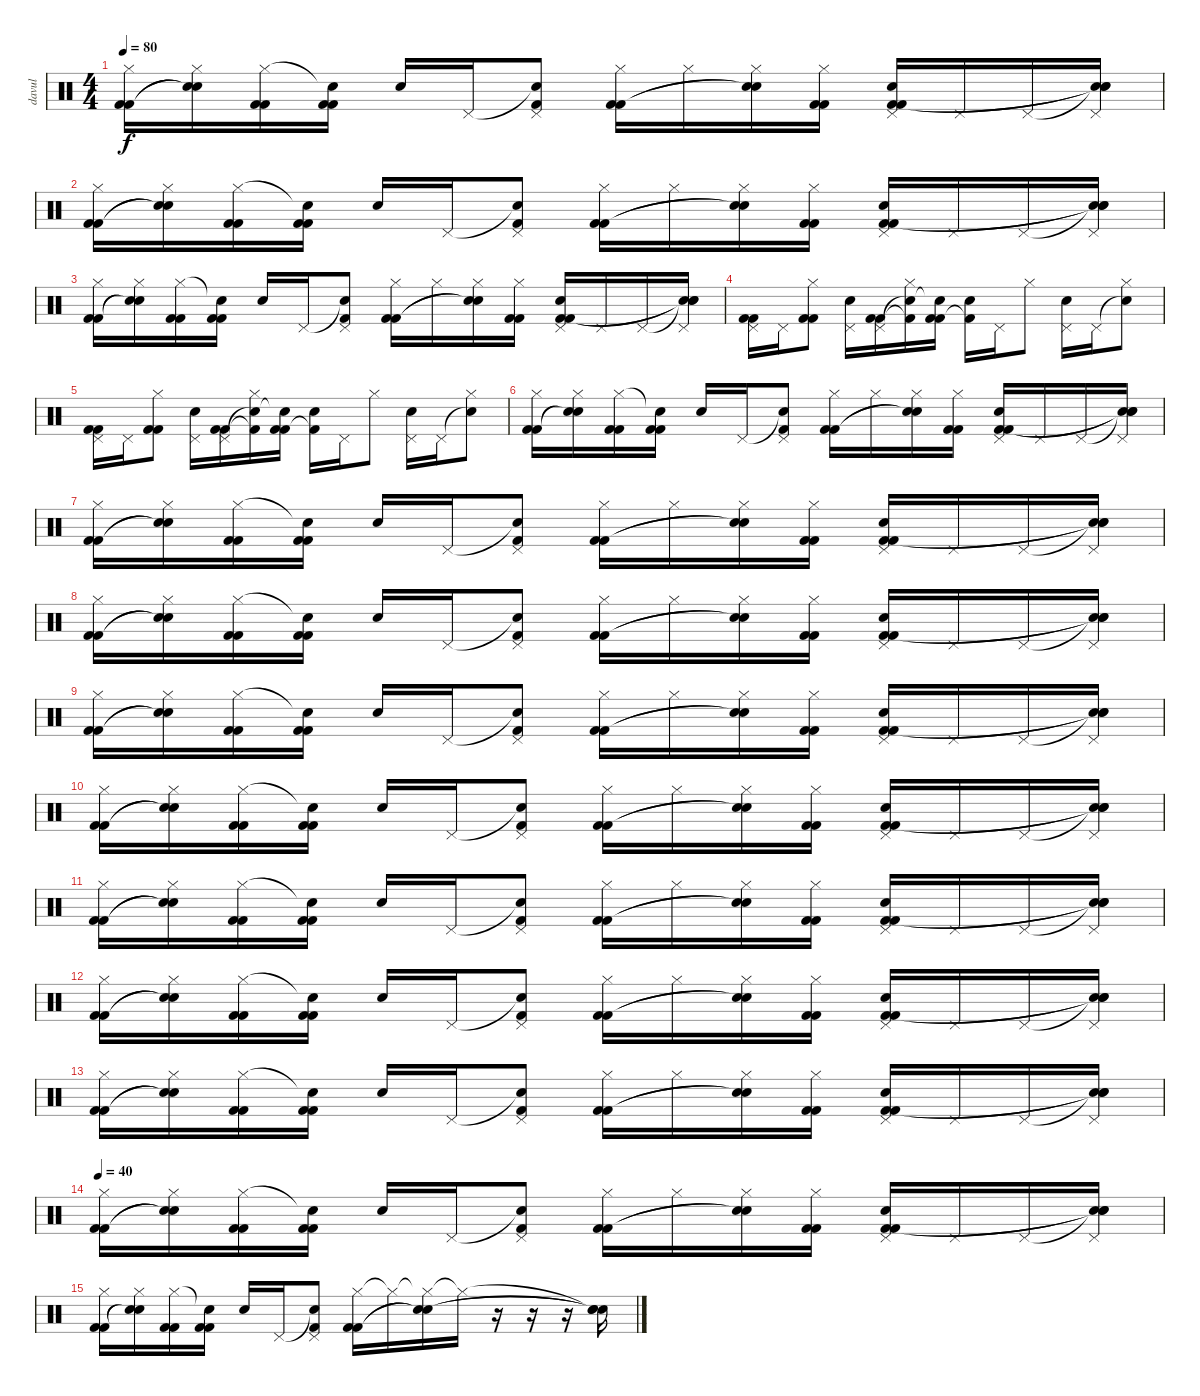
\track ("davul" "davul") {instrument percussion}
\staff {score}
\articulation defaults
\ts (4 4)
\tempo 80
\clef neutral
\ks c
("Hi-Hat (closed)" "Kick (hit) 2" "Kick (hit) 2").16{dy f} ("Hi-Hat (closed)" "Snare (hit)"{t} "Snare (hit)"{t}).16 ("Hi-Hat (closed)" "Kick (hit) 2" "Kick (hit) 2").16 ("Snare (hit)"{t} "Kick (hit) 2" "Kick (hit) 2").16 "Electric Snare (hit)".16 "Pedal Hi-Hat (hit)".16 ("Snare (hit)"{t} "Pedal Hi-Hat (hit)" "Kick (hit) 2").8 ("Hi-Hat (closed)" "Kick (hit) 2" "Kick (hit) 2").16 "Hi-Hat (closed)".16 ("Hi-Hat (closed)" "Snare (hit)"{t} "Snare (hit)"{t}).16 ("Hi-Hat (closed)" "Kick (hit) 2" "Kick (hit) 2").16 ("Electric Snare (hit)" "Pedal Hi-Hat (hit)" "Kick (hit) 2" "Kick (hit) 2").16 "Pedal Hi-Hat (hit)".16 "Pedal Hi-Hat (hit)".16 ("Snare (hit)"{t} "Pedal Hi-Hat (hit)" "Snare (hit)"{t} "Snare (hit)"{t}).16 |
("Hi-Hat (closed)" "Kick (hit) 2" "Kick (hit) 2").16 ("Hi-Hat (closed)" "Snare (hit)"{t} "Snare (hit)"{t}).16 ("Hi-Hat (closed)" "Kick (hit) 2" "Kick (hit) 2").16 ("Snare (hit)"{t} "Kick (hit) 2" "Kick (hit) 2").16 "Electric Snare (hit)".16 "Pedal Hi-Hat (hit)".16 ("Snare (hit)"{t} "Pedal Hi-Hat (hit)" "Kick (hit) 2").8 ("Hi-Hat (closed)" "Kick (hit) 2" "Kick (hit) 2").16 "Hi-Hat (closed)".16 ("Hi-Hat (closed)" "Snare (hit)"{t} "Snare (hit)"{t}).16 ("Hi-Hat (closed)" "Kick (hit) 2" "Kick (hit) 2").16 ("Electric Snare (hit)" "Pedal Hi-Hat (hit)" "Kick (hit) 2" "Kick (hit) 2").16 "Pedal Hi-Hat (hit)".16 "Pedal Hi-Hat (hit)".16 ("Snare (hit)"{t} "Pedal Hi-Hat (hit)" "Snare (hit)"{t} "Snare (hit)"{t}).16 |
("Hi-Hat (closed)" "Kick (hit) 2" "Kick (hit) 2").16 ("Hi-Hat (closed)" "Snare (hit)"{t} "Snare (hit)"{t}).16 ("Hi-Hat (closed)" "Kick (hit) 2" "Kick (hit) 2").16 ("Snare (hit)"{t} "Kick (hit) 2" "Kick (hit) 2").16 "Electric Snare (hit)".16 "Pedal Hi-Hat (hit)".16 ("Snare (hit)"{t} "Pedal Hi-Hat (hit)" "Kick (hit) 2").8 ("Hi-Hat (closed)" "Kick (hit) 2" "Kick (hit) 2").16 "Hi-Hat (closed)".16 ("Hi-Hat (closed)" "Snare (hit)"{t} "Snare (hit)"{t}).16 ("Hi-Hat (closed)" "Kick (hit) 2" "Kick (hit) 2").16 ("Electric Snare (hit)" "Pedal Hi-Hat (hit)" "Kick (hit) 2" "Kick (hit) 2").16 "Pedal Hi-Hat (hit)".16 "Pedal Hi-Hat (hit)".16 ("Snare (hit)"{t} "Pedal Hi-Hat (hit)" "Snare (hit)"{t} "Snare (hit)"{t}).16 |
("Pedal Hi-Hat (hit)" "Kick (hit) 2" "Kick (hit) 2").16 "Pedal Hi-Hat (hit)".16 ("Hi-Hat (closed)" "Kick (hit) 2" "Kick (hit) 2").8 ("Electric Snare (hit)" "Pedal Hi-Hat (hit)").16 ("Pedal Hi-Hat (hit)" "Kick (hit) 2" "Kick (hit) 2").16 ("Snare (hit)"{t} "Hi-Hat (closed)" "Kick (hit) 2"{t}).16 ("Snare (hit)"{t} "Kick (hit) 2" "Kick (hit) 2").16 ("Snare (hit)" "Kick (hit) 2"{t}).16 "Pedal Hi-Hat (hit)".16 "Hi-Hat (closed)".8 ("Electric Snare (hit)" "Pedal Hi-Hat (hit)").16 "Pedal Hi-Hat (hit)".16 ("Snare (hit)"{t} "Hi-Hat (closed)").8 |
("Pedal Hi-Hat (hit)" "Kick (hit) 2" "Kick (hit) 2").16 "Pedal Hi-Hat (hit)".16 ("Hi-Hat (closed)" "Kick (hit) 2" "Kick (hit) 2").8 ("Electric Snare (hit)" "Pedal Hi-Hat (hit)").16 ("Pedal Hi-Hat (hit)" "Kick (hit) 2" "Kick (hit) 2").16 ("Snare (hit)"{t} "Hi-Hat (closed)" "Kick (hit) 2"{t}).16 ("Snare (hit)"{t} "Kick (hit) 2" "Kick (hit) 2").16 ("Snare (hit)" "Kick (hit) 2"{t}).16 "Pedal Hi-Hat (hit)".16 "Hi-Hat (closed)".8 ("Electric Snare (hit)" "Pedal Hi-Hat (hit)").16 "Pedal Hi-Hat (hit)".16 ("Snare (hit)"{t} "Hi-Hat (closed)").8 |
("Hi-Hat (closed)" "Kick (hit) 2" "Kick (hit) 2").16 ("Hi-Hat (closed)" "Snare (hit)"{t} "Snare (hit)"{t}).16 ("Hi-Hat (closed)" "Kick (hit) 2" "Kick (hit) 2").16 ("Snare (hit)"{t} "Kick (hit) 2" "Kick (hit) 2").16 "Electric Snare (hit)".16 "Pedal Hi-Hat (hit)".16 ("Snare (hit)"{t} "Pedal Hi-Hat (hit)" "Kick (hit) 2").8 ("Hi-Hat (closed)" "Kick (hit) 2" "Kick (hit) 2").16 "Hi-Hat (closed)".16 ("Hi-Hat (closed)" "Snare (hit)"{t} "Snare (hit)"{t}).16 ("Hi-Hat (closed)" "Kick (hit) 2" "Kick (hit) 2").16 ("Electric Snare (hit)" "Pedal Hi-Hat (hit)" "Kick (hit) 2" "Kick (hit) 2").16 "Pedal Hi-Hat (hit)".16 "Pedal Hi-Hat (hit)".16 ("Snare (hit)"{t} "Pedal Hi-Hat (hit)" "Snare (hit)"{t} "Snare (hit)"{t}).16 |
("Hi-Hat (closed)" "Kick (hit) 2" "Kick (hit) 2").16 ("Hi-Hat (closed)" "Snare (hit)"{t} "Snare (hit)"{t}).16 ("Hi-Hat (closed)" "Kick (hit) 2" "Kick (hit) 2").16 ("Snare (hit)"{t} "Kick (hit) 2" "Kick (hit) 2").16 "Electric Snare (hit)".16 "Pedal Hi-Hat (hit)".16 ("Snare (hit)"{t} "Pedal Hi-Hat (hit)" "Kick (hit) 2").8 ("Hi-Hat (closed)" "Kick (hit) 2" "Kick (hit) 2").16 "Hi-Hat (closed)".16 ("Hi-Hat (closed)" "Snare (hit)"{t} "Snare (hit)"{t}).16 ("Hi-Hat (closed)" "Kick (hit) 2" "Kick (hit) 2").16 ("Electric Snare (hit)" "Pedal Hi-Hat (hit)" "Kick (hit) 2" "Kick (hit) 2").16 "Pedal Hi-Hat (hit)".16 "Pedal Hi-Hat (hit)".16 ("Snare (hit)"{t} "Pedal Hi-Hat (hit)" "Snare (hit)"{t} "Snare (hit)"{t}).16 |
("Hi-Hat (closed)" "Kick (hit) 2" "Kick (hit) 2").16 ("Hi-Hat (closed)" "Snare (hit)"{t} "Snare (hit)"{t}).16 ("Hi-Hat (closed)" "Kick (hit) 2" "Kick (hit) 2").16 ("Snare (hit)"{t} "Kick (hit) 2" "Kick (hit) 2").16 "Electric Snare (hit)".16 "Pedal Hi-Hat (hit)".16 ("Snare (hit)"{t} "Pedal Hi-Hat (hit)" "Kick (hit) 2").8 ("Hi-Hat (closed)" "Kick (hit) 2" "Kick (hit) 2").16 "Hi-Hat (closed)".16 ("Hi-Hat (closed)" "Snare (hit)"{t} "Snare (hit)"{t}).16 ("Hi-Hat (closed)" "Kick (hit) 2" "Kick (hit) 2").16 ("Electric Snare (hit)" "Pedal Hi-Hat (hit)" "Kick (hit) 2" "Kick (hit) 2").16 "Pedal Hi-Hat (hit)".16 "Pedal Hi-Hat (hit)".16 ("Snare (hit)"{t} "Pedal Hi-Hat (hit)" "Snare (hit)"{t} "Snare (hit)"{t}).16 |
("Hi-Hat (closed)" "Kick (hit) 2" "Kick (hit) 2").16 ("Hi-Hat (closed)" "Snare (hit)"{t} "Snare (hit)"{t}).16 ("Hi-Hat (closed)" "Kick (hit) 2" "Kick (hit) 2").16 ("Snare (hit)"{t} "Kick (hit) 2" "Kick (hit) 2").16 "Electric Snare (hit)".16 "Pedal Hi-Hat (hit)".16 ("Snare (hit)"{t} "Pedal Hi-Hat (hit)" "Kick (hit) 2").8 ("Hi-Hat (closed)" "Kick (hit) 2" "Kick (hit) 2").16 "Hi-Hat (closed)".16 ("Hi-Hat (closed)" "Snare (hit)"{t} "Snare (hit)"{t}).16 ("Hi-Hat (closed)" "Kick (hit) 2" "Kick (hit) 2").16 ("Electric Snare (hit)" "Pedal Hi-Hat (hit)" "Kick (hit) 2" "Kick (hit) 2").16 "Pedal Hi-Hat (hit)".16 "Pedal Hi-Hat (hit)".16 ("Snare (hit)"{t} "Pedal Hi-Hat (hit)" "Snare (hit)"{t} "Snare (hit)"{t}).16 |
("Hi-Hat (closed)" "Kick (hit) 2" "Kick (hit) 2").16 ("Hi-Hat (closed)" "Snare (hit)"{t} "Snare (hit)"{t}).16 ("Hi-Hat (closed)" "Kick (hit) 2" "Kick (hit) 2").16 ("Snare (hit)"{t} "Kick (hit) 2" "Kick (hit) 2").16 "Electric Snare (hit)".16 "Pedal Hi-Hat (hit)".16 ("Snare (hit)"{t} "Pedal Hi-Hat (hit)" "Kick (hit) 2").8 ("Hi-Hat (closed)" "Kick (hit) 2" "Kick (hit) 2").16 "Hi-Hat (closed)".16 ("Hi-Hat (closed)" "Snare (hit)"{t} "Snare (hit)"{t}).16 ("Hi-Hat (closed)" "Kick (hit) 2" "Kick (hit) 2").16 ("Electric Snare (hit)" "Pedal Hi-Hat (hit)" "Kick (hit) 2" "Kick (hit) 2").16 "Pedal Hi-Hat (hit)".16 "Pedal Hi-Hat (hit)".16 ("Snare (hit)"{t} "Pedal Hi-Hat (hit)" "Snare (hit)"{t} "Snare (hit)"{t}).16 |
("Hi-Hat (closed)" "Kick (hit) 2" "Kick (hit) 2").16 ("Hi-Hat (closed)" "Snare (hit)"{t} "Snare (hit)"{t}).16 ("Hi-Hat (closed)" "Kick (hit) 2" "Kick (hit) 2").16 ("Snare (hit)"{t} "Kick (hit) 2" "Kick (hit) 2").16 "Electric Snare (hit)".16 "Pedal Hi-Hat (hit)".16 ("Snare (hit)"{t} "Pedal Hi-Hat (hit)" "Kick (hit) 2").8 ("Hi-Hat (closed)" "Kick (hit) 2" "Kick (hit) 2").16 "Hi-Hat (closed)".16 ("Hi-Hat (closed)" "Snare (hit)"{t} "Snare (hit)"{t}).16 ("Hi-Hat (closed)" "Kick (hit) 2" "Kick (hit) 2").16 ("Electric Snare (hit)" "Pedal Hi-Hat (hit)" "Kick (hit) 2" "Kick (hit) 2").16 "Pedal Hi-Hat (hit)".16 "Pedal Hi-Hat (hit)".16 ("Snare (hit)"{t} "Pedal Hi-Hat (hit)" "Snare (hit)"{t} "Snare (hit)"{t}).16 |
("Hi-Hat (closed)" "Kick (hit) 2" "Kick (hit) 2").16 ("Hi-Hat (closed)" "Snare (hit)"{t} "Snare (hit)"{t}).16 ("Hi-Hat (closed)" "Kick (hit) 2" "Kick (hit) 2").16 ("Snare (hit)"{t} "Kick (hit) 2" "Kick (hit) 2").16 "Electric Snare (hit)".16 "Pedal Hi-Hat (hit)".16 ("Snare (hit)"{t} "Pedal Hi-Hat (hit)" "Kick (hit) 2").8 ("Hi-Hat (closed)" "Kick (hit) 2" "Kick (hit) 2").16 "Hi-Hat (closed)".16 ("Hi-Hat (closed)" "Snare (hit)"{t} "Snare (hit)"{t}).16 ("Hi-Hat (closed)" "Kick (hit) 2" "Kick (hit) 2").16 ("Electric Snare (hit)" "Pedal Hi-Hat (hit)" "Kick (hit) 2" "Kick (hit) 2").16 "Pedal Hi-Hat (hit)".16 "Pedal Hi-Hat (hit)".16 ("Snare (hit)"{t} "Pedal Hi-Hat (hit)" "Snare (hit)"{t} "Snare (hit)"{t}).16 |
("Hi-Hat (closed)" "Kick (hit) 2" "Kick (hit) 2").16 ("Hi-Hat (closed)" "Snare (hit)"{t} "Snare (hit)"{t}).16 ("Hi-Hat (closed)" "Kick (hit) 2" "Kick (hit) 2").16 ("Snare (hit)"{t} "Kick (hit) 2" "Kick (hit) 2").16 "Electric Snare (hit)".16 "Pedal Hi-Hat (hit)".16 ("Snare (hit)"{t} "Pedal Hi-Hat (hit)" "Kick (hit) 2").8 ("Hi-Hat (closed)" "Kick (hit) 2" "Kick (hit) 2").16 "Hi-Hat (closed)".16 ("Hi-Hat (closed)" "Snare (hit)"{t} "Snare (hit)"{t}).16 ("Hi-Hat (closed)" "Kick (hit) 2" "Kick (hit) 2").16 ("Electric Snare (hit)" "Pedal Hi-Hat (hit)" "Kick (hit) 2" "Kick (hit) 2").16 "Pedal Hi-Hat (hit)".16 "Pedal Hi-Hat (hit)".16 ("Snare (hit)"{t} "Pedal Hi-Hat (hit)" "Snare (hit)"{t} "Snare (hit)"{t}).16 |
\tempo 40
("Hi-Hat (closed)" "Kick (hit) 2" "Kick (hit) 2").16 ("Hi-Hat (closed)" "Snare (hit)"{t} "Snare (hit)"{t}).16 ("Hi-Hat (closed)" "Kick (hit) 2" "Kick (hit) 2").16 ("Snare (hit)"{t} "Kick (hit) 2" "Kick (hit) 2").16 "Electric Snare (hit)".16 "Pedal Hi-Hat (hit)".16 ("Snare (hit)"{t} "Pedal Hi-Hat (hit)" "Kick (hit) 2").8 ("Hi-Hat (closed)" "Kick (hit) 2" "Kick (hit) 2").16 "Hi-Hat (closed)".16 ("Hi-Hat (closed)" "Snare (hit)"{t} "Snare (hit)"{t}).16 ("Hi-Hat (closed)" "Kick (hit) 2" "Kick (hit) 2").16 ("Electric Snare (hit)" "Pedal Hi-Hat (hit)" "Kick (hit) 2" "Kick (hit) 2").16 "Pedal Hi-Hat (hit)".16 "Pedal Hi-Hat (hit)".16 ("Snare (hit)"{t} "Pedal Hi-Hat (hit)" "Snare (hit)"{t} "Snare (hit)"{t}).16 |
("Hi-Hat (closed)" "Kick (hit) 2" "Kick (hit) 2").16 ("Hi-Hat (closed)" "Snare (hit)"{t} "Snare (hit)"{t}).16 ("Hi-Hat (closed)" "Kick (hit) 2" "Kick (hit) 2").16 ("Snare (hit)"{t} "Kick (hit) 2" "Kick (hit) 2").16 "Electric Snare (hit)".16 "Pedal Hi-Hat (hit)".16 ("Snare (hit)"{t} "Pedal Hi-Hat (hit)" "Kick (hit) 2").8 ("Hi-Hat (closed)" "Kick (hit) 2" "Kick (hit) 2").16 "Hi-Hat (closed)"{t}.16 ("Hi-Hat (closed)"{t} "Snare (hit)"{t} "Snare (hit)"{t}).16 "Hi-Hat (closed)"{t}.16 r.16 r.16 r.16 ("Snare (hit)"{t} "Snare (hit)"{t} "Snare (hit)"{t}).16
